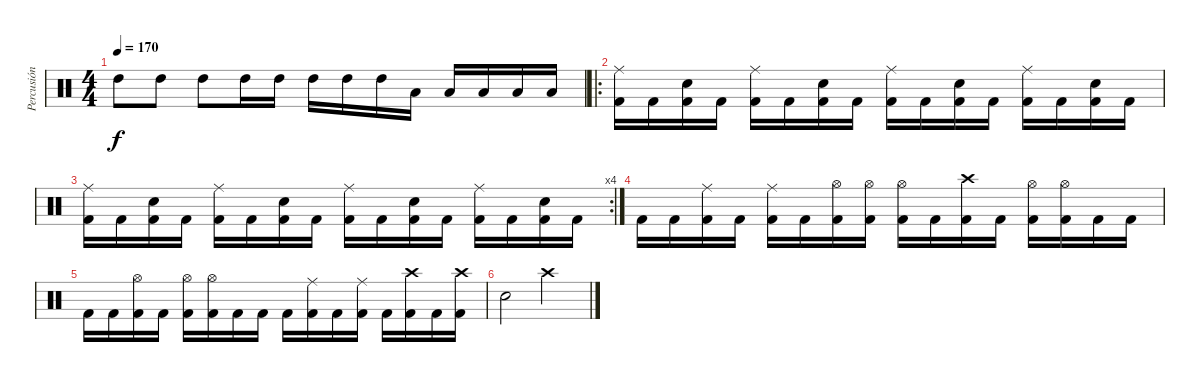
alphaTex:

\track ("Percusión" "Percusión") {instrument percussion}
\staff {score}
\articulation defaults
\ts (4 4)
\tempo 170
\clef neutral
\ks c "High Tom (hit)".8{dy f} "High Tom (hit)".8 "High Tom (hit)".8 "High Tom (hit)".16 "High Tom (hit)".16 "High Tom (hit)".16 "High Tom (hit)".16 "High Tom (hit)".16 "Low Tom (hit)".16 "Low Tom (hit)".16 "Low Tom (hit)".16 "Low Tom (hit)".16 "Low Tom (hit)".16
|
\ro
("Kick (hit) 2" "Ride (middle)").16 "Kick (hit) 2".16 ("Kick (hit) 2" "Snare (hit) 2").16 "Kick (hit) 2".16 ("Kick (hit) 2" "Ride (middle)").16 "Kick (hit) 2".16 ("Kick (hit) 2" "Snare (hit) 2").16 "Kick (hit) 2".16 ("Kick (hit) 2" "Ride (middle)").16 "Kick (hit) 2".16 ("Kick (hit) 2" "Snare (hit) 2").16 "Kick (hit) 2".16 ("Kick (hit) 2" "Ride (middle)").16 "Kick (hit) 2".16 ("Kick (hit) 2" "Snare (hit) 2").16 "Kick (hit) 2".16 |
\rc 4
("Kick (hit) 2" "Ride (middle)").16 "Kick (hit) 2".16 ("Kick (hit) 2" "Snare (hit) 2").16 "Kick (hit) 2".16 ("Kick (hit) 2" "Ride (middle)").16 "Kick (hit) 2".16 ("Kick (hit) 2" "Snare (hit) 2").16 "Kick (hit) 2".16 ("Kick (hit) 2" "Ride (middle)").16 "Kick (hit) 2".16 ("Kick (hit) 2" "Snare (hit) 2").16 "Kick (hit) 2".16 ("Kick (hit) 2" "Ride (middle)").16 "Kick (hit) 2".16 ("Kick (hit) 2" "Snare (hit) 2").16 "Kick (hit) 2".16 |
"Kick (hit) 2".16 "Kick (hit) 2".16 ("Kick (hit) 2" "Ride (middle)").16 "Kick (hit) 2".16 ("Kick (hit) 2" "Ride (middle)").16 "Kick (hit) 2".16 ("Kick (hit) 2" "Hi-Hat (open)").16 ("Kick (hit) 2" "Hi-Hat (open)").16 ("Kick (hit) 2" "Hi-Hat (open)").16 "Kick (hit) 2".16 ("Kick (hit) 2" "Crash high (hit)").16 "Kick (hit) 2".16 ("Kick (hit) 2" "Hi-Hat (open)").16 ("Kick (hit) 2" "Hi-Hat (open)").16 "Kick (hit) 2".16 "Kick (hit) 2".16 |
"Kick (hit) 2".16 "Kick (hit) 2".16 ("Kick (hit) 2" "Hi-Hat (open)").16 "Kick (hit) 2".16 ("Kick (hit) 2" "Hi-Hat (open)").16 ("Kick (hit) 2" "Hi-Hat (open)").16 "Kick (hit) 2".16 "Kick (hit) 2".16 "Kick (hit) 2".16 ("Kick (hit) 2" "Ride (middle)").16 "Kick (hit) 2".16 ("Kick (hit) 2" "Ride (middle)").16 "Kick (hit) 2".16 ("Kick (hit) 2" "Crash high (hit)").16 "Kick (hit) 2".16 ("Kick (hit) 2" "Crash high (hit)").16 |
"Snare (hit) 2".2 "Crash high (hit)".2
